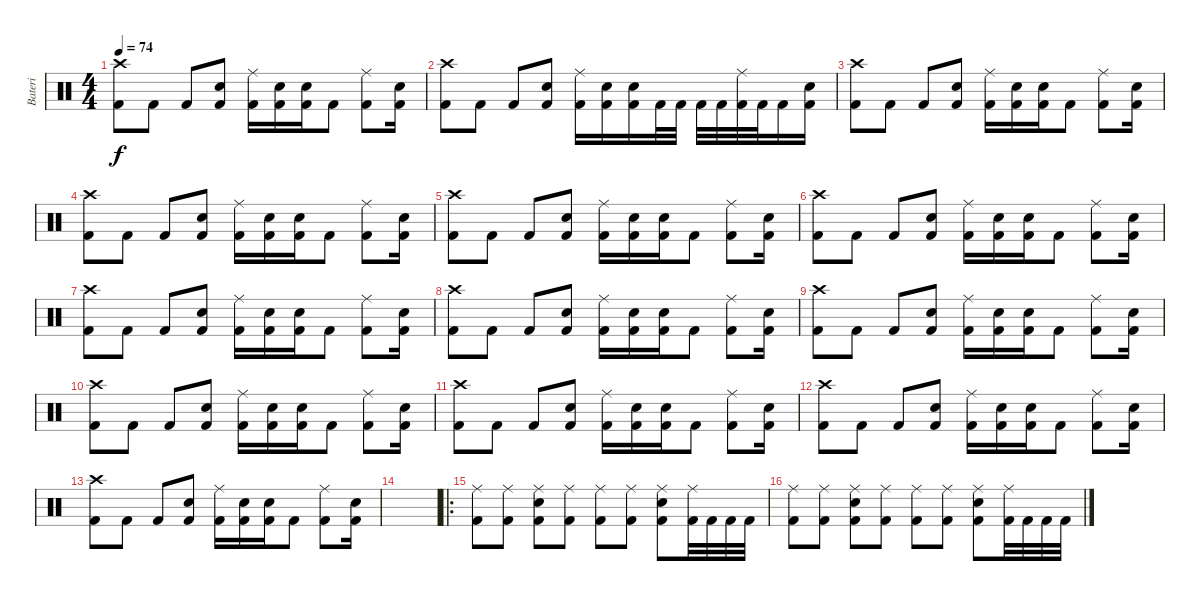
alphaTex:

\track ("Bateri" "Bateri") {instrument percussion}
\staff {score}
\articulation defaults
\ts (4 4)
\tempo 74
\clef neutral
\ks c
("Crash high (hit)" "Kick (hit) 2").8{dy f} "Kick (hit) 2".8 "Kick (hit) 2".8 ("Electric Snare (hit)" "Kick (hit) 2").8 ("Ride (middle)" "Kick (hit) 2").16 ("Electric Snare (hit)" "Kick (hit) 2").16 ("Electric Snare (hit)" "Kick (hit) 2").16 "Kick (hit) 2".8 ("Ride (middle)" "Kick (hit) 2").8 ("Electric Snare (hit)" "Kick (hit) 2").16 |
("Crash high (hit)" "Kick (hit) 2").8 "Kick (hit) 2".8 "Kick (hit) 2".8 ("Electric Snare (hit)" "Kick (hit) 2").8 ("Ride (middle)" "Kick (hit) 2").16 ("Electric Snare (hit)" "Kick (hit) 2").16 ("Electric Snare (hit)" "Kick (hit) 2").16 "Kick (hit) 2".32 "Kick (hit) 2".32 "Kick (hit) 2".32 "Kick (hit) 2".32 ("Ride (middle)" "Kick (hit) 2").32 "Kick (hit) 2".32 "Kick (hit) 2".16 ("Electric Snare (hit)" "Kick (hit) 2").16 |
("Crash high (hit)" "Kick (hit) 2").8 "Kick (hit) 2".8 "Kick (hit) 2".8 ("Electric Snare (hit)" "Kick (hit) 2").8 ("Ride (middle)" "Kick (hit) 2").16 ("Electric Snare (hit)" "Kick (hit) 2").16 ("Electric Snare (hit)" "Kick (hit) 2").16 "Kick (hit) 2".8 ("Ride (middle)" "Kick (hit) 2").8 ("Electric Snare (hit)" "Kick (hit) 2").16 |
("Crash high (hit)" "Kick (hit) 2").8 "Kick (hit) 2".8 "Kick (hit) 2".8 ("Electric Snare (hit)" "Kick (hit) 2").8 ("Ride (middle)" "Kick (hit) 2").16 ("Electric Snare (hit)" "Kick (hit) 2").16 ("Electric Snare (hit)" "Kick (hit) 2").16 "Kick (hit) 2".8 ("Ride (middle)" "Kick (hit) 2").8 ("Electric Snare (hit)" "Kick (hit) 2").16 |
("Crash high (hit)" "Kick (hit) 2").8 "Kick (hit) 2".8 "Kick (hit) 2".8 ("Electric Snare (hit)" "Kick (hit) 2").8 ("Ride (middle)" "Kick (hit) 2").16 ("Electric Snare (hit)" "Kick (hit) 2").16 ("Electric Snare (hit)" "Kick (hit) 2").16 "Kick (hit) 2".8 ("Ride (middle)" "Kick (hit) 2").8 ("Electric Snare (hit)" "Kick (hit) 2").16 |
("Crash high (hit)" "Kick (hit) 2").8 "Kick (hit) 2".8 "Kick (hit) 2".8 ("Electric Snare (hit)" "Kick (hit) 2").8 ("Ride (middle)" "Kick (hit) 2").16 ("Electric Snare (hit)" "Kick (hit) 2").16 ("Electric Snare (hit)" "Kick (hit) 2").16 "Kick (hit) 2".8 ("Ride (middle)" "Kick (hit) 2").8 ("Electric Snare (hit)" "Kick (hit) 2").16 |
("Crash high (hit)" "Kick (hit) 2").8 "Kick (hit) 2".8 "Kick (hit) 2".8 ("Electric Snare (hit)" "Kick (hit) 2").8 ("Ride (middle)" "Kick (hit) 2").16 ("Electric Snare (hit)" "Kick (hit) 2").16 ("Electric Snare (hit)" "Kick (hit) 2").16 "Kick (hit) 2".8 ("Ride (middle)" "Kick (hit) 2").8 ("Electric Snare (hit)" "Kick (hit) 2").16 |
("Crash high (hit)" "Kick (hit) 2").8 "Kick (hit) 2".8 "Kick (hit) 2".8 ("Electric Snare (hit)" "Kick (hit) 2").8 ("Ride (middle)" "Kick (hit) 2").16 ("Electric Snare (hit)" "Kick (hit) 2").16 ("Electric Snare (hit)" "Kick (hit) 2").16 "Kick (hit) 2".8 ("Ride (middle)" "Kick (hit) 2").8 ("Electric Snare (hit)" "Kick (hit) 2").16 |
("Crash high (hit)" "Kick (hit) 2").8 "Kick (hit) 2".8 "Kick (hit) 2".8 ("Electric Snare (hit)" "Kick (hit) 2").8 ("Ride (middle)" "Kick (hit) 2").16 ("Electric Snare (hit)" "Kick (hit) 2").16 ("Electric Snare (hit)" "Kick (hit) 2").16 "Kick (hit) 2".8 ("Ride (middle)" "Kick (hit) 2").8 ("Electric Snare (hit)" "Kick (hit) 2").16 |
("Crash high (hit)" "Kick (hit) 2").8 "Kick (hit) 2".8 "Kick (hit) 2".8 ("Electric Snare (hit)" "Kick (hit) 2").8 ("Ride (middle)" "Kick (hit) 2").16 ("Electric Snare (hit)" "Kick (hit) 2").16 ("Electric Snare (hit)" "Kick (hit) 2").16 "Kick (hit) 2".8 ("Ride (middle)" "Kick (hit) 2").8 ("Electric Snare (hit)" "Kick (hit) 2").16 |
("Crash high (hit)" "Kick (hit) 2").8 "Kick (hit) 2".8 "Kick (hit) 2".8 ("Electric Snare (hit)" "Kick (hit) 2").8 ("Ride (middle)" "Kick (hit) 2").16 ("Electric Snare (hit)" "Kick (hit) 2").16 ("Electric Snare (hit)" "Kick (hit) 2").16 "Kick (hit) 2".8 ("Ride (middle)" "Kick (hit) 2").8 ("Electric Snare (hit)" "Kick (hit) 2").16 |
("Crash high (hit)" "Kick (hit) 2").8 "Kick (hit) 2".8 "Kick (hit) 2".8 ("Electric Snare (hit)" "Kick (hit) 2").8 ("Ride (middle)" "Kick (hit) 2").16 ("Electric Snare (hit)" "Kick (hit) 2").16 ("Electric Snare (hit)" "Kick (hit) 2").16 "Kick (hit) 2".8 ("Ride (middle)" "Kick (hit) 2").8 ("Electric Snare (hit)" "Kick (hit) 2").16 |
("Crash high (hit)" "Kick (hit) 2").8 "Kick (hit) 2".8 "Kick (hit) 2".8 ("Electric Snare (hit)" "Kick (hit) 2").8 ("Ride (middle)" "Kick (hit) 2").16 ("Electric Snare (hit)" "Kick (hit) 2").16 ("Electric Snare (hit)" "Kick (hit) 2").16 "Kick (hit) 2".8 ("Ride (middle)" "Kick (hit) 2").8 ("Electric Snare (hit)" "Kick (hit) 2").16 |
|
\ro
("Ride (middle)" "Kick (hit) 2").8 ("Ride (middle)" "Kick (hit) 2").8 ("Ride (middle)" "Electric Snare (hit)" "Kick (hit) 2").8 ("Ride (middle)" "Kick (hit) 2").8 ("Ride (middle)" "Kick (hit) 2").8 ("Ride (middle)" "Kick (hit) 2").8 ("Ride (middle)" "Electric Snare (hit)" "Kick (hit) 2").8 ("Ride (middle)" "Kick (hit) 2").32 "Kick (hit) 2".32 "Kick (hit) 2".32 "Kick (hit) 2".32 |
("Ride (middle)" "Kick (hit) 2").8 ("Ride (middle)" "Kick (hit) 2").8 ("Ride (middle)" "Electric Snare (hit)" "Kick (hit) 2").8 ("Ride (middle)" "Kick (hit) 2").8 ("Ride (middle)" "Kick (hit) 2").8 ("Ride (middle)" "Kick (hit) 2").8 ("Ride (middle)" "Electric Snare (hit)" "Kick (hit) 2").8 ("Ride (middle)" "Kick (hit) 2").32 "Kick (hit) 2".32 "Kick (hit) 2".32 "Kick (hit) 2".32
